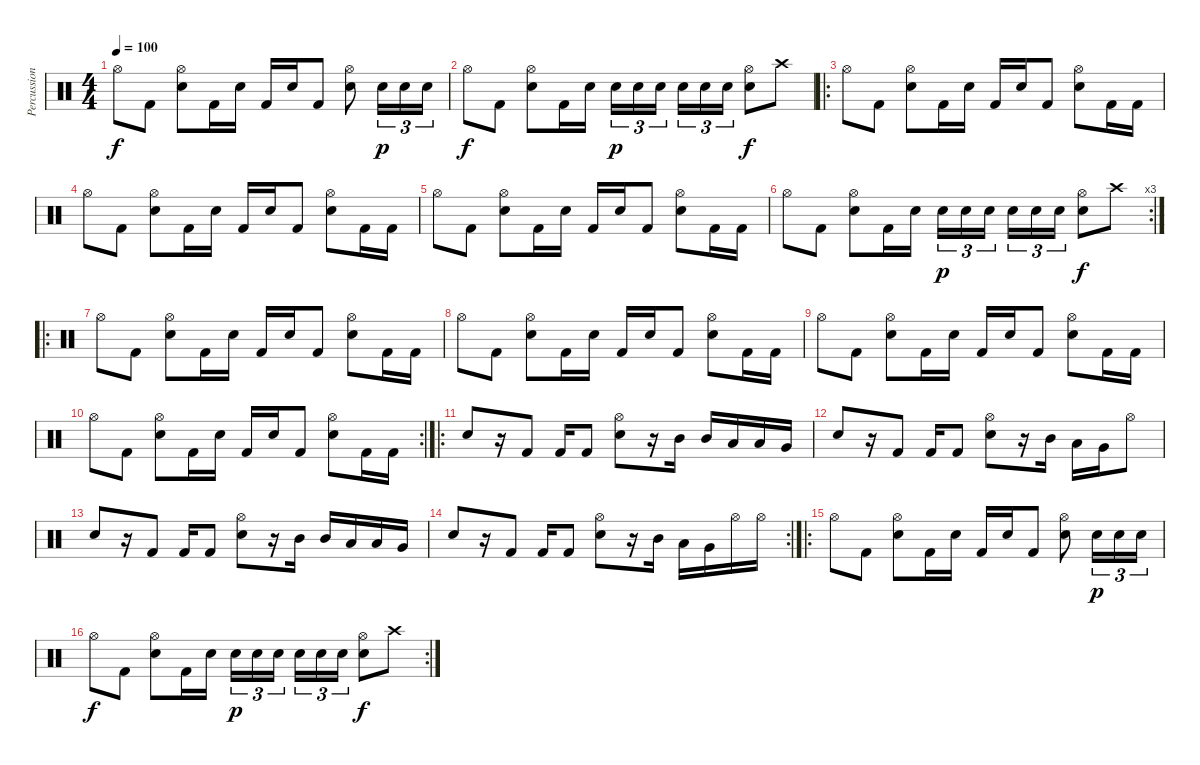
\track ("Percussioni" "Percussion") {instrument percussion}
\staff {score}
\articulation defaults
\ts (4 4)
\tempo 100
\clef neutral
\ks c "Hi-Hat (open)".8{dy f} "Kick (hit) 2".8
("Hi-Hat (open)" "Electric Snare (hit)").8 "Kick (hit) 2".16 "Electric Snare (hit)".16 "Kick (hit) 2".16 "Electric Snare (hit)".16 "Kick (hit) 2".8 ("Hi-Hat (open)" "Electric Snare (hit)").8 "Electric Snare (hit)".16{tu (3 2) dy p} "Electric Snare (hit)".16{tu (3 2)} "Electric Snare (hit)".16{tu (3 2)} |
"Hi-Hat (open)".8{dy f} "Kick (hit) 2".8 ("Hi-Hat (open)" "Electric Snare (hit)").8 "Kick (hit) 2".16 "Electric Snare (hit)".16 "Electric Snare (hit)".16{tu (3 2) dy p} "Electric Snare (hit)".16{tu (3 2)} "Electric Snare (hit)".16{tu (3 2)} "Electric Snare (hit)".16{tu (3 2)} "Electric Snare (hit)".16{tu (3 2)} "Electric Snare (hit)".16{tu (3 2)} ("Hi-Hat (open)" "Electric Snare (hit)").8{dy f} "Crash high (hit)".8 |
\ro "Hi-Hat (open)".8 "Kick (hit) 2".8
("Hi-Hat (open)" "Electric Snare (hit)").8 "Kick (hit) 2".16 "Electric Snare (hit)".16 "Kick (hit) 2".16 "Electric Snare (hit)".16 "Kick (hit) 2".8 ("Hi-Hat (open)" "Electric Snare (hit)").8 "Kick (hit) 2".16 "Kick (hit) 2".16 |
"Hi-Hat (open)".8 "Kick (hit) 2".8 ("Hi-Hat (open)" "Electric Snare (hit)").8 "Kick (hit) 2".16 "Electric Snare (hit)".16 "Kick (hit) 2".16 "Electric Snare (hit)".16 "Kick (hit) 2".8 ("Hi-Hat (open)" "Electric Snare (hit)").8 "Kick (hit) 2".16 "Kick (hit) 2".16 |
"Hi-Hat (open)".8 "Kick (hit) 2".8 ("Hi-Hat (open)" "Electric Snare (hit)").8 "Kick (hit) 2".16 "Electric Snare (hit)".16 "Kick (hit) 2".16 "Electric Snare (hit)".16 "Kick (hit) 2".8 ("Hi-Hat (open)" "Electric Snare (hit)").8 "Kick (hit) 2".16 "Kick (hit) 2".16 |
\rc 3 "Hi-Hat (open)".8 "Kick (hit) 2".8
("Hi-Hat (open)" "Electric Snare (hit)").8 "Kick (hit) 2".16 "Electric Snare (hit)".16 "Electric Snare (hit)".16{tu (3 2) dy p} "Electric Snare (hit)".16{tu (3 2)} "Electric Snare (hit)".16{tu (3 2)} "Electric Snare (hit)".16{tu (3 2)} "Electric Snare (hit)".16{tu (3 2)} "Electric Snare (hit)".16{tu (3 2)} ("Hi-Hat (open)" "Electric Snare (hit)").8{dy f} "Crash high (hit)".8 |
\ro "Hi-Hat (open)".8 "Kick (hit) 2".8
("Hi-Hat (open)" "Electric Snare (hit)").8 "Kick (hit) 2".16 "Electric Snare (hit)".16 "Kick (hit) 2".16 "Electric Snare (hit)".16 "Kick (hit) 2".8 ("Hi-Hat (open)" "Electric Snare (hit)").8 "Kick (hit) 2".16 "Kick (hit) 2".16 |
"Hi-Hat (open)".8 "Kick (hit) 2".8 ("Hi-Hat (open)" "Electric Snare (hit)").8 "Kick (hit) 2".16 "Electric Snare (hit)".16 "Kick (hit) 2".16 "Electric Snare (hit)".16 "Kick (hit) 2".8 ("Hi-Hat (open)" "Electric Snare (hit)").8 "Kick (hit) 2".16 "Kick (hit) 2".16 |
"Hi-Hat (open)".8 "Kick (hit) 2".8 ("Hi-Hat (open)" "Electric Snare (hit)").8 "Kick (hit) 2".16 "Electric Snare (hit)".16 "Kick (hit) 2".16 "Electric Snare (hit)".16 "Kick (hit) 2".8 ("Hi-Hat (open)" "Electric Snare (hit)").8 "Kick (hit) 2".16 "Kick (hit) 2".16 |
\rc 2 "Hi-Hat (open)".8 "Kick (hit) 2".8
("Hi-Hat (open)" "Electric Snare (hit)").8 "Kick (hit) 2".16 "Electric Snare (hit)".16 "Kick (hit) 2".16 "Electric Snare (hit)".16 "Kick (hit) 2".8 ("Hi-Hat (open)" "Electric Snare (hit)").8 "Kick (hit) 2".16 "Kick (hit) 2".16 |
\ro "Electric Snare (hit)".8
r.16 "Kick (hit) 2".8 "Kick (hit) 2".16 "Kick (hit) 2".8 ("Hi-Hat (open)" "Electric Snare (hit)").8 r.16 "Mid Tom (hit)".16 "Mid Tom (hit)".16 "Low Tom (hit)".16 "Low Tom (hit)".16 "Very Low Tom (hit)".16 |
"Electric Snare (hit)".8 r.16 "Kick (hit) 2".8 "Kick (hit) 2".16 "Kick (hit) 2".8 ("Hi-Hat (open)" "Electric Snare (hit)").8 r.16 "Mid Tom (hit)".16 "Low Tom (hit)".16 "Very Low Tom (hit)".16 "Hi-Hat (open)".8 |
"Electric Snare (hit)".8 r.16 "Kick (hit) 2".8 "Kick (hit) 2".16 "Kick (hit) 2".8 ("Hi-Hat (open)" "Electric Snare (hit)").8 r.16 "Mid Tom (hit)".16 "Mid Tom (hit)".16 "Low Tom (hit)".16 "Low Tom (hit)".16 "Very Low Tom (hit)".16 |
\rc 2 "Electric Snare (hit)".8
r.16 "Kick (hit) 2".8 "Kick (hit) 2".16 "Kick (hit) 2".8 ("Hi-Hat (open)" "Electric Snare (hit)").8 r.16 "Mid Tom (hit)".16 "Low Tom (hit)".16 "Very Low Tom (hit)".16 "Hi-Hat (open)".16 "Hi-Hat (open)".16 |
\ro "Hi-Hat (open)".8 "Kick (hit) 2".8
("Hi-Hat (open)" "Electric Snare (hit)").8 "Kick (hit) 2".16 "Electric Snare (hit)".16 "Kick (hit) 2".16 "Electric Snare (hit)".16 "Kick (hit) 2".8 ("Hi-Hat (open)" "Electric Snare (hit)").8 "Electric Snare (hit)".16{tu (3 2) dy p} "Electric Snare (hit)".16{tu (3 2)} "Electric Snare (hit)".16{tu (3 2)} |
\rc 2 "Hi-Hat (open)".8{dy f} "Kick (hit) 2".8
("Hi-Hat (open)" "Electric Snare (hit)").8 "Kick (hit) 2".16 "Electric Snare (hit)".16 "Electric Snare (hit)".16{tu (3 2) dy p} "Electric Snare (hit)".16{tu (3 2)} "Electric Snare (hit)".16{tu (3 2)} "Electric Snare (hit)".16{tu (3 2)} "Electric Snare (hit)".16{tu (3 2)} "Electric Snare (hit)".16{tu (3 2)} ("Hi-Hat (open)" "Electric Snare (hit)").8{dy f} "Crash high (hit)".8
